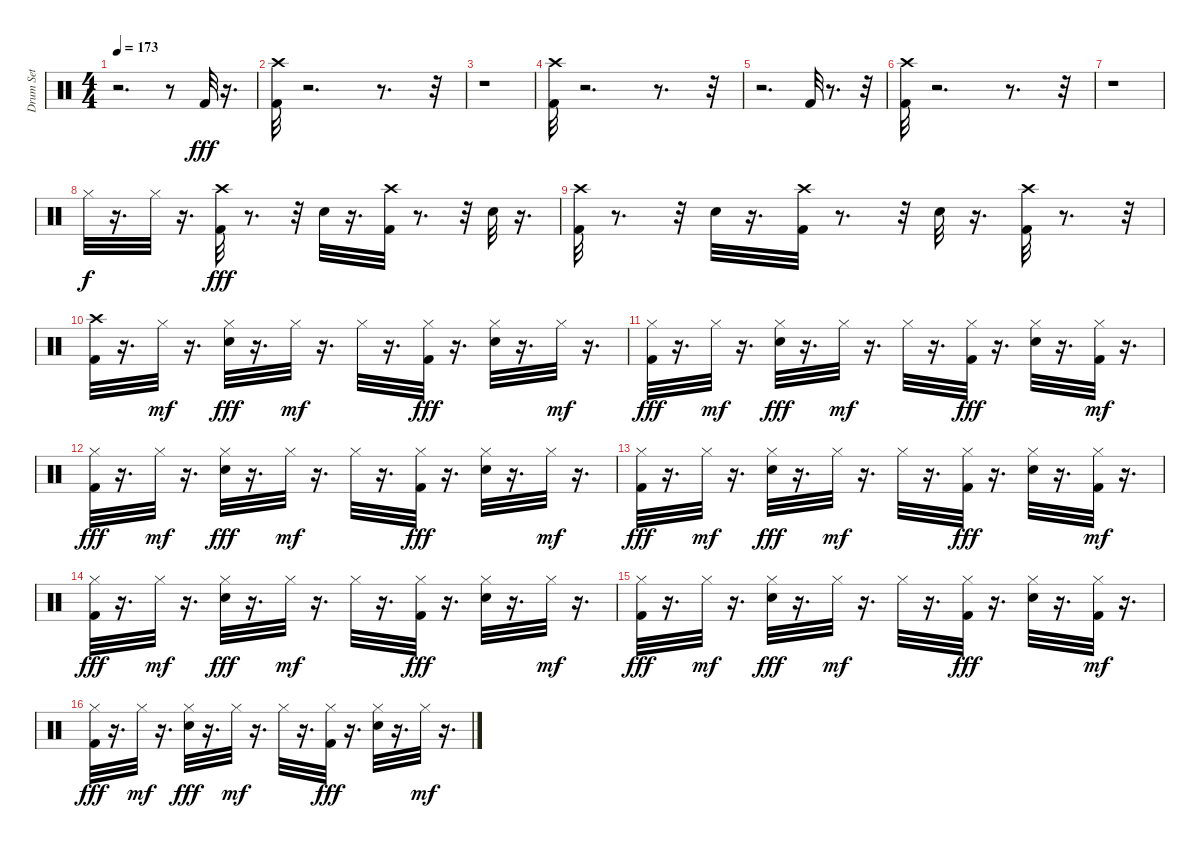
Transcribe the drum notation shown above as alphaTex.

\track ("Drum Set" "Drum Set") {instrument percussion}
\staff {score}
\articulation defaults
\ts (4 4)
\tempo 173
\clef neutral
\ks c
r.2{d dy fff} r.8 "Kick (hit) 2".32 r.16{d} |
("Crash high (hit)" "Kick (hit) 2").32 r.2{d} r.8{d} r.32 |
r.1 |
("Crash high (hit)" "Kick (hit) 2").32 r.2{d} r.8{d} r.32 |
r.2{d} "Kick (hit) 2".32 r.8{d} r.32 |
("Crash high (hit)" "Kick (hit) 2").32 r.2{d} r.8{d} r.32 |
r.1 |
"Hi-Hat (closed)".32{dy f} r.16{d} "Hi-Hat (closed)".32 r.16{d} ("Crash high (hit)" "Kick (hit) 2").32{dy fff} r.8{d} r.32 "Electric Snare (hit)".32 r.16{d} ("Crash high (hit)" "Kick (hit) 2").32 r.8{d} r.32 "Electric Snare (hit)".32 r.16{d} |
("Crash high (hit)" "Kick (hit) 2").32 r.8{d} r.32 "Electric Snare (hit)".32 r.16{d} ("Crash high (hit)" "Kick (hit) 2").32 r.8{d} r.32 "Electric Snare (hit)".32 r.16{d} ("Crash high (hit)" "Kick (hit) 2").32 r.8{d} r.32 |
("Crash high (hit)" "Kick (hit) 2").32 r.16{d} "Hi-Hat (closed)".32{dy mf} r.16{d} ("Hi-Hat (closed)" "Electric Snare (hit)").32{dy fff} r.16{d} "Hi-Hat (closed)".32{dy mf} r.16{d} "Hi-Hat (closed)".32 r.16{d} ("Hi-Hat (closed)" "Kick (hit) 2").32{dy fff} r.16{d} ("Hi-Hat (closed)" "Electric Snare (hit)").32 r.16{d} "Hi-Hat (closed)".32{dy mf} r.16{d} |
("Hi-Hat (closed)" "Kick (hit) 2").32{dy fff} r.16{d} "Hi-Hat (closed)".32{dy mf} r.16{d} ("Hi-Hat (closed)" "Electric Snare (hit)").32{dy fff} r.16{d} "Hi-Hat (closed)".32{dy mf} r.16{d} "Hi-Hat (closed)".32 r.16{d} ("Hi-Hat (closed)" "Kick (hit) 2").32{dy fff} r.16{d} ("Hi-Hat (closed)" "Electric Snare (hit)").32 r.16{d} ("Kick (hit) 2" "Hi-Hat (closed)").32{dy mf} r.16{d} |
("Hi-Hat (closed)" "Kick (hit) 2").32{dy fff} r.16{d} "Hi-Hat (closed)".32{dy mf} r.16{d} ("Hi-Hat (closed)" "Electric Snare (hit)").32{dy fff} r.16{d} "Hi-Hat (closed)".32{dy mf} r.16{d} "Hi-Hat (closed)".32 r.16{d} ("Hi-Hat (closed)" "Kick (hit) 2").32{dy fff} r.16{d} ("Hi-Hat (closed)" "Electric Snare (hit)").32 r.16{d} "Hi-Hat (closed)".32{dy mf} r.16{d} |
("Hi-Hat (closed)" "Kick (hit) 2").32{dy fff} r.16{d} "Hi-Hat (closed)".32{dy mf} r.16{d} ("Hi-Hat (closed)" "Electric Snare (hit)").32{dy fff} r.16{d} "Hi-Hat (closed)".32{dy mf} r.16{d} "Hi-Hat (closed)".32 r.16{d} ("Hi-Hat (closed)" "Kick (hit) 2").32{dy fff} r.16{d} ("Hi-Hat (closed)" "Electric Snare (hit)").32 r.16{d} ("Kick (hit) 2" "Hi-Hat (closed)").32{dy mf} r.16{d} |
("Hi-Hat (closed)" "Kick (hit) 2").32{dy fff} r.16{d} "Hi-Hat (closed)".32{dy mf} r.16{d} ("Hi-Hat (closed)" "Electric Snare (hit)").32{dy fff} r.16{d} "Hi-Hat (closed)".32{dy mf} r.16{d} "Hi-Hat (closed)".32 r.16{d} ("Hi-Hat (closed)" "Kick (hit) 2").32{dy fff} r.16{d} ("Hi-Hat (closed)" "Electric Snare (hit)").32 r.16{d} "Hi-Hat (closed)".32{dy mf} r.16{d} |
("Hi-Hat (closed)" "Kick (hit) 2").32{dy fff} r.16{d} "Hi-Hat (closed)".32{dy mf} r.16{d} ("Hi-Hat (closed)" "Electric Snare (hit)").32{dy fff} r.16{d} "Hi-Hat (closed)".32{dy mf} r.16{d} "Hi-Hat (closed)".32 r.16{d} ("Hi-Hat (closed)" "Kick (hit) 2").32{dy fff} r.16{d} ("Hi-Hat (closed)" "Electric Snare (hit)").32 r.16{d} ("Kick (hit) 2" "Hi-Hat (closed)").32{dy mf} r.16{d} |
("Hi-Hat (closed)" "Kick (hit) 2").32{dy fff} r.16{d} "Hi-Hat (closed)".32{dy mf} r.16{d} ("Hi-Hat (closed)" "Electric Snare (hit)").32{dy fff} r.16{d} "Hi-Hat (closed)".32{dy mf} r.16{d} "Hi-Hat (closed)".32 r.16{d} ("Hi-Hat (closed)" "Kick (hit) 2").32{dy fff} r.16{d} ("Hi-Hat (closed)" "Electric Snare (hit)").32 r.16{d} "Hi-Hat (closed)".32{dy mf} r.16{d}
